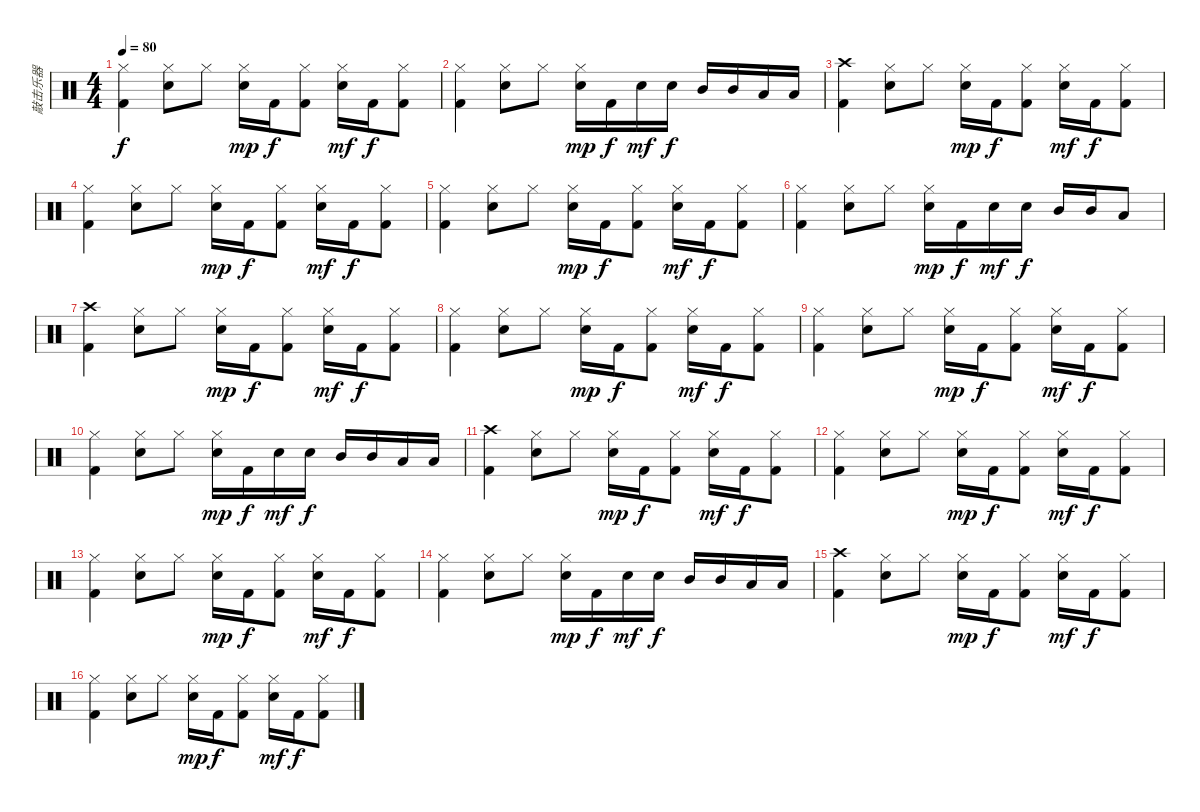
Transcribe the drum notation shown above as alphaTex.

\track ("敲击乐器" "敲击乐器") {instrument percussion}
\staff {score}
\articulation defaults
\ts (4 4)
\tempo 80
\clef neutral
\ks c
("Hi-Hat (closed)" "Kick (hit) 2").4{dy f} ("Hi-Hat (closed)" "Snare (hit) 2").8 "Hi-Hat (closed)".8 ("Hi-Hat (closed)" "Snare (hit) 2").16{dy mp} "Kick (hit) 2".16{dy f} ("Hi-Hat (closed)" "Kick (hit) 2").8 ("Hi-Hat (closed)" "Snare (hit) 2").16{dy mf} "Kick (hit) 2".16{dy f} ("Hi-Hat (closed)" "Kick (hit) 2").8 |
("Hi-Hat (closed)" "Kick (hit) 2").4 ("Hi-Hat (closed)" "Snare (hit) 2").8 "Hi-Hat (closed)".8 ("Hi-Hat (closed)" "Snare (hit) 2").16{dy mp} "Kick (hit) 2".16{dy f} "Snare (hit) 2".16{dy mf} "Snare (hit) 2".16{dy f} "Mid Tom (hit)".16 "Mid Tom (hit)".16 "Low Tom (hit)".16 "Low Tom (hit)".16 |
("Crash high (hit)" "Kick (hit) 2").4 ("Hi-Hat (closed)" "Snare (hit) 2").8 "Hi-Hat (closed)".8 ("Hi-Hat (closed)" "Snare (hit) 2").16{dy mp} "Kick (hit) 2".16{dy f} ("Hi-Hat (closed)" "Kick (hit) 2").8 ("Hi-Hat (closed)" "Snare (hit) 2").16{dy mf} "Kick (hit) 2".16{dy f} ("Hi-Hat (closed)" "Kick (hit) 2").8 |
("Hi-Hat (closed)" "Kick (hit) 2").4 ("Hi-Hat (closed)" "Snare (hit) 2").8 "Hi-Hat (closed)".8 ("Hi-Hat (closed)" "Snare (hit) 2").16{dy mp} "Kick (hit) 2".16{dy f} ("Hi-Hat (closed)" "Kick (hit) 2").8 ("Hi-Hat (closed)" "Snare (hit) 2").16{dy mf} "Kick (hit) 2".16{dy f} ("Hi-Hat (closed)" "Kick (hit) 2").8 |
("Hi-Hat (closed)" "Kick (hit) 2").4 ("Hi-Hat (closed)" "Snare (hit) 2").8 "Hi-Hat (closed)".8 ("Hi-Hat (closed)" "Snare (hit) 2").16{dy mp} "Kick (hit) 2".16{dy f} ("Hi-Hat (closed)" "Kick (hit) 2").8 ("Hi-Hat (closed)" "Snare (hit) 2").16{dy mf} "Kick (hit) 2".16{dy f} ("Hi-Hat (closed)" "Kick (hit) 2").8 |
("Hi-Hat (closed)" "Kick (hit) 2").4 ("Hi-Hat (closed)" "Snare (hit) 2").8 "Hi-Hat (closed)".8 ("Hi-Hat (closed)" "Snare (hit) 2").16{dy mp} "Kick (hit) 2".16{dy f} "Snare (hit) 2".16{dy mf} "Snare (hit) 2".16{dy f} "Mid Tom (hit)".16 "Mid Tom (hit)".16 "Low Tom (hit)".8 |
("Crash high (hit)" "Kick (hit) 2").4 ("Hi-Hat (closed)" "Snare (hit) 2").8 "Hi-Hat (closed)".8 ("Hi-Hat (closed)" "Snare (hit) 2").16{dy mp} "Kick (hit) 2".16{dy f} ("Hi-Hat (closed)" "Kick (hit) 2").8 ("Hi-Hat (closed)" "Snare (hit) 2").16{dy mf} "Kick (hit) 2".16{dy f} ("Hi-Hat (closed)" "Kick (hit) 2").8 |
("Hi-Hat (closed)" "Kick (hit) 2").4 ("Hi-Hat (closed)" "Snare (hit) 2").8 "Hi-Hat (closed)".8 ("Hi-Hat (closed)" "Snare (hit) 2").16{dy mp} "Kick (hit) 2".16{dy f} ("Hi-Hat (closed)" "Kick (hit) 2").8 ("Hi-Hat (closed)" "Snare (hit) 2").16{dy mf} "Kick (hit) 2".16{dy f} ("Hi-Hat (closed)" "Kick (hit) 2").8 |
("Hi-Hat (closed)" "Kick (hit) 2").4 ("Hi-Hat (closed)" "Snare (hit) 2").8 "Hi-Hat (closed)".8 ("Hi-Hat (closed)" "Snare (hit) 2").16{dy mp} "Kick (hit) 2".16{dy f} ("Hi-Hat (closed)" "Kick (hit) 2").8 ("Hi-Hat (closed)" "Snare (hit) 2").16{dy mf} "Kick (hit) 2".16{dy f} ("Hi-Hat (closed)" "Kick (hit) 2").8 |
("Hi-Hat (closed)" "Kick (hit) 2").4 ("Hi-Hat (closed)" "Snare (hit) 2").8 "Hi-Hat (closed)".8 ("Hi-Hat (closed)" "Snare (hit) 2").16{dy mp} "Kick (hit) 2".16{dy f} "Snare (hit) 2".16{dy mf} "Snare (hit) 2".16{dy f} "Mid Tom (hit)".16 "Mid Tom (hit)".16 "Low Tom (hit)".16 "Low Tom (hit)".16 |
("Crash high (hit)" "Kick (hit) 2").4 ("Hi-Hat (closed)" "Snare (hit) 2").8 "Hi-Hat (closed)".8 ("Hi-Hat (closed)" "Snare (hit) 2").16{dy mp} "Kick (hit) 2".16{dy f} ("Hi-Hat (closed)" "Kick (hit) 2").8 ("Hi-Hat (closed)" "Snare (hit) 2").16{dy mf} "Kick (hit) 2".16{dy f} ("Hi-Hat (closed)" "Kick (hit) 2").8 |
("Hi-Hat (closed)" "Kick (hit) 2").4 ("Hi-Hat (closed)" "Snare (hit) 2").8 "Hi-Hat (closed)".8 ("Hi-Hat (closed)" "Snare (hit) 2").16{dy mp} "Kick (hit) 2".16{dy f} ("Hi-Hat (closed)" "Kick (hit) 2").8 ("Hi-Hat (closed)" "Snare (hit) 2").16{dy mf} "Kick (hit) 2".16{dy f} ("Hi-Hat (closed)" "Kick (hit) 2").8 |
("Hi-Hat (closed)" "Kick (hit) 2").4 ("Hi-Hat (closed)" "Snare (hit) 2").8 "Hi-Hat (closed)".8 ("Hi-Hat (closed)" "Snare (hit) 2").16{dy mp} "Kick (hit) 2".16{dy f} ("Hi-Hat (closed)" "Kick (hit) 2").8 ("Hi-Hat (closed)" "Snare (hit) 2").16{dy mf} "Kick (hit) 2".16{dy f} ("Hi-Hat (closed)" "Kick (hit) 2").8 |
("Hi-Hat (closed)" "Kick (hit) 2").4 ("Hi-Hat (closed)" "Snare (hit) 2").8 "Hi-Hat (closed)".8 ("Hi-Hat (closed)" "Snare (hit) 2").16{dy mp} "Kick (hit) 2".16{dy f} "Snare (hit) 2".16{dy mf} "Snare (hit) 2".16{dy f} "Mid Tom (hit)".16 "Mid Tom (hit)".16 "Low Tom (hit)".16 "Low Tom (hit)".16 |
("Crash high (hit)" "Kick (hit) 2").4 ("Hi-Hat (closed)" "Snare (hit) 2").8 "Hi-Hat (closed)".8 ("Hi-Hat (closed)" "Snare (hit) 2").16{dy mp} "Kick (hit) 2".16{dy f} ("Hi-Hat (closed)" "Kick (hit) 2").8 ("Hi-Hat (closed)" "Snare (hit) 2").16{dy mf} "Kick (hit) 2".16{dy f} ("Hi-Hat (closed)" "Kick (hit) 2").8 |
("Hi-Hat (closed)" "Kick (hit) 2").4 ("Hi-Hat (closed)" "Snare (hit) 2").8 "Hi-Hat (closed)".8 ("Hi-Hat (closed)" "Snare (hit) 2").16{dy mp} "Kick (hit) 2".16{dy f} ("Hi-Hat (closed)" "Kick (hit) 2").8 ("Hi-Hat (closed)" "Snare (hit) 2").16{dy mf} "Kick (hit) 2".16{dy f} ("Hi-Hat (closed)" "Kick (hit) 2").8
